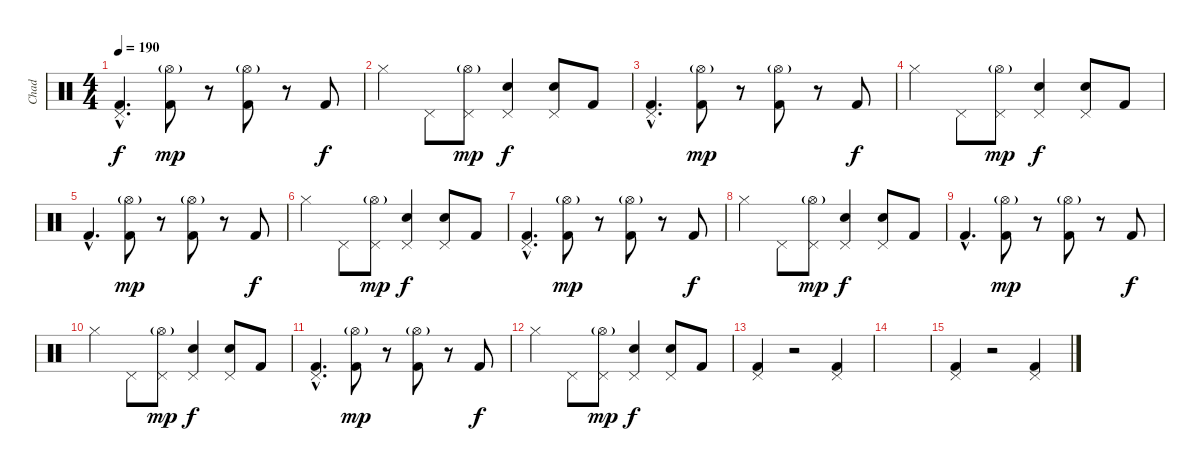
\track ("Chad" "Chad") {instrument percussion}
\staff {score}
\articulation defaults
\ts (4 4)
\tempo 190
\clef neutral
\ks c
("Kick (hit) 2"{hac} "Pedal Hi-Hat (hit)"{hac}).4{d dy f} ("Kick (hit) 2" "Hi-Hat (open)"{g}).8{dy mp} r.8 ("Kick (hit) 2" "Hi-Hat (open)"{g}).8 r.8 "Kick (hit) 2".8{dy f} |
"Hi-Hat (closed)".4 "Pedal Hi-Hat (hit)".8 ("Pedal Hi-Hat (hit)" "Hi-Hat (open)"{g}).8{dy mp} ("Electric Snare (hit)" "Pedal Hi-Hat (hit)").4{dy f} ("Electric Snare (hit)" "Pedal Hi-Hat (hit)").8 "Kick (hit) 2".8 |
("Kick (hit) 2"{hac} "Pedal Hi-Hat (hit)"{hac}).4{d} ("Kick (hit) 2" "Hi-Hat (open)"{g}).8{dy mp} r.8 ("Kick (hit) 2" "Hi-Hat (open)"{g}).8 r.8 "Kick (hit) 2".8{dy f} |
"Hi-Hat (closed)".4 "Pedal Hi-Hat (hit)".8 ("Pedal Hi-Hat (hit)" "Hi-Hat (open)"{g}).8{dy mp} ("Electric Snare (hit)" "Pedal Hi-Hat (hit)").4{dy f} ("Electric Snare (hit)" "Pedal Hi-Hat (hit)").8 "Kick (hit) 2".8 |
"Kick (hit) 2"{hac}.4{d} ("Kick (hit) 2" "Hi-Hat (open)"{g}).8{dy mp} r.8 ("Kick (hit) 2" "Hi-Hat (open)"{g}).8 r.8 "Kick (hit) 2".8{dy f} |
"Hi-Hat (closed)".4 "Pedal Hi-Hat (hit)".8 ("Pedal Hi-Hat (hit)" "Hi-Hat (open)"{g}).8{dy mp} ("Electric Snare (hit)" "Pedal Hi-Hat (hit)").4{dy f} ("Electric Snare (hit)" "Pedal Hi-Hat (hit)").8 "Kick (hit) 2".8 |
("Kick (hit) 2"{hac} "Pedal Hi-Hat (hit)"{hac}).4{d} ("Kick (hit) 2" "Hi-Hat (open)"{g}).8{dy mp} r.8 ("Kick (hit) 2" "Hi-Hat (open)"{g}).8 r.8 "Kick (hit) 2".8{dy f} |
"Hi-Hat (closed)".4 "Pedal Hi-Hat (hit)".8 ("Pedal Hi-Hat (hit)" "Hi-Hat (open)"{g}).8{dy mp} ("Electric Snare (hit)" "Pedal Hi-Hat (hit)").4{dy f} ("Electric Snare (hit)" "Pedal Hi-Hat (hit)").8 "Kick (hit) 2".8 |
"Kick (hit) 2"{hac}.4{d} ("Kick (hit) 2" "Hi-Hat (open)"{g}).8{dy mp} r.8 ("Kick (hit) 2" "Hi-Hat (open)"{g}).8 r.8 "Kick (hit) 2".8{dy f} |
"Hi-Hat (closed)".4 "Pedal Hi-Hat (hit)".8 ("Pedal Hi-Hat (hit)" "Hi-Hat (open)"{g}).8{dy mp} ("Electric Snare (hit)" "Pedal Hi-Hat (hit)").4{dy f} ("Electric Snare (hit)" "Pedal Hi-Hat (hit)").8 "Kick (hit) 2".8 |
("Kick (hit) 2"{hac} "Pedal Hi-Hat (hit)"{hac}).4{d} ("Kick (hit) 2" "Hi-Hat (open)"{g}).8{dy mp} r.8 ("Kick (hit) 2" "Hi-Hat (open)"{g}).8 r.8 "Kick (hit) 2".8{dy f} |
"Hi-Hat (closed)".4 "Pedal Hi-Hat (hit)".8 ("Pedal Hi-Hat (hit)" "Hi-Hat (open)"{g}).8{dy mp} ("Electric Snare (hit)" "Pedal Hi-Hat (hit)").4{dy f} ("Electric Snare (hit)" "Pedal Hi-Hat (hit)").8 "Kick (hit) 2".8 |
("Kick (hit) 2" "Pedal Hi-Hat (hit)").4 r.2 ("Kick (hit) 2" "Pedal Hi-Hat (hit)").4 |
|
("Kick (hit) 2" "Pedal Hi-Hat (hit)").4 r.2 ("Kick (hit) 2" "Pedal Hi-Hat (hit)").4
